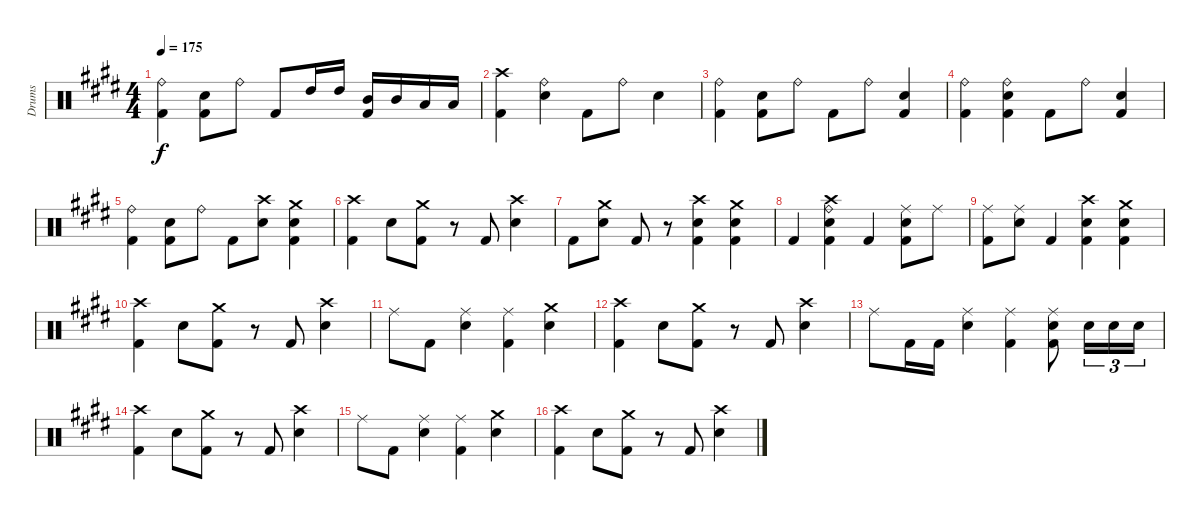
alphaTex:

\track ("Drums" "Drums") {instrument percussion}
\staff {score}
\articulation defaults
\ts (4 4)
\tempo 175
\clef neutral
\ks e
("Ride (bell)" "Kick (hit) 2").4{dy f} ("Electric Snare (hit)" "Kick (hit) 2").8 "Ride (bell)".8 "Kick (hit) 2".8 "High Tom (hit)".16 "High Tom (hit)".16 ("Mid Tom (hit)" "Kick (hit) 2").16 "Mid Tom (hit)".16 "Low Tom (hit)".16 "Low Tom (hit)".16 |
("Crash high (hit)" "Kick (hit) 2").4 ("Ride (bell)" "Electric Snare (hit)").4 "Kick (hit) 2".8 "Ride (bell)".8 "Electric Snare (hit)".4 |
("Ride (bell)" "Kick (hit) 2").4 ("Electric Snare (hit)" "Kick (hit) 2").8 "Ride (bell)".8 "Kick (hit) 2".8 "Ride (bell)".8 ("Electric Snare (hit)" "Kick (hit) 2").4 |
("Ride (bell)" "Kick (hit) 2").4 ("Ride (bell)" "Electric Snare (hit)" "Kick (hit) 2").4 "Kick (hit) 2".8 "Ride (bell)".8 ("Electric Snare (hit)" "Kick (hit) 2").4 |
("Ride (bell)" "Kick (hit) 2").4 ("Electric Snare (hit)" "Kick (hit) 2").8 "Ride (bell)".8 "Kick (hit) 2".8 ("Crash high (hit)" "Electric Snare (hit)").8 ("Crash medium (hit)" "Electric Snare (hit)" "Kick (hit) 2").4 |
("Crash high (hit)" "Kick (hit) 2").4 "Electric Snare (hit)".8 ("Crash medium (hit)" "Kick (hit) 2").8 r.8 "Kick (hit) 2".8 ("Crash high (hit)" "Electric Snare (hit)").4 |
"Kick (hit) 2".8 ("Crash medium (hit)" "Electric Snare (hit)").8 "Kick (hit) 2".8 r.8 ("Crash high (hit)" "Electric Snare (hit)" "Kick (hit) 2").4 ("Crash medium (hit)" "Electric Snare (hit)" "Kick (hit) 2").4 |
"Kick (hit) 2".4 ("Crash high (hit)" "Ride (bell)" "Electric Snare (hit)" "Kick (hit) 2").4 "Kick (hit) 2".4 ("Ride (middle)" "Electric Snare (hit)" "Kick (hit) 2").8 "Ride (middle)".8 |
("Ride (middle)" "Kick (hit) 2").8 ("Ride (middle)" "Electric Snare (hit)").8 "Kick (hit) 2".4 ("Crash high (hit)" "Electric Snare (hit)" "Kick (hit) 2").4 ("Crash medium (hit)" "Electric Snare (hit)" "Kick (hit) 2").4 |
("Crash high (hit)" "Kick (hit) 2").4 "Electric Snare (hit)".8 ("Crash medium (hit)" "Kick (hit) 2").8 r.8 "Kick (hit) 2".8 ("Crash high (hit)" "Electric Snare (hit)").4 |
"Ride (middle)".8 "Kick (hit) 2".8 ("Ride (middle)" "Electric Snare (hit)").4 ("Ride (middle)" "Kick (hit) 2").4 ("Crash medium (hit)" "Electric Snare (hit)").4 |
("Crash high (hit)" "Kick (hit) 2").4 "Electric Snare (hit)".8 ("Crash medium (hit)" "Kick (hit) 2").8 r.8 "Kick (hit) 2".8 ("Crash high (hit)" "Electric Snare (hit)").4 |
"Ride (middle)".8 "Kick (hit) 2".16 "Kick (hit) 2".16 ("Ride (middle)" "Electric Snare (hit)").4 ("Ride (middle)" "Kick (hit) 2").4 ("Ride (middle)" "Electric Snare (hit)" "Kick (hit) 2").8 "Electric Snare (hit)".16{tu (3 2)} "Electric Snare (hit)".16{tu (3 2)} "Electric Snare (hit)".16{tu (3 2)} |
("Crash high (hit)" "Kick (hit) 2").4 "Electric Snare (hit)".8 ("Crash medium (hit)" "Kick (hit) 2").8 r.8 "Kick (hit) 2".8 ("Crash high (hit)" "Electric Snare (hit)").4 |
"Ride (middle)".8 "Kick (hit) 2".8 ("Ride (middle)" "Electric Snare (hit)").4 ("Ride (middle)" "Kick (hit) 2").4 ("Crash medium (hit)" "Electric Snare (hit)").4 |
("Crash high (hit)" "Kick (hit) 2").4 "Electric Snare (hit)".8 ("Crash medium (hit)" "Kick (hit) 2").8 r.8 "Kick (hit) 2".8 ("Crash high (hit)" "Electric Snare (hit)").4
